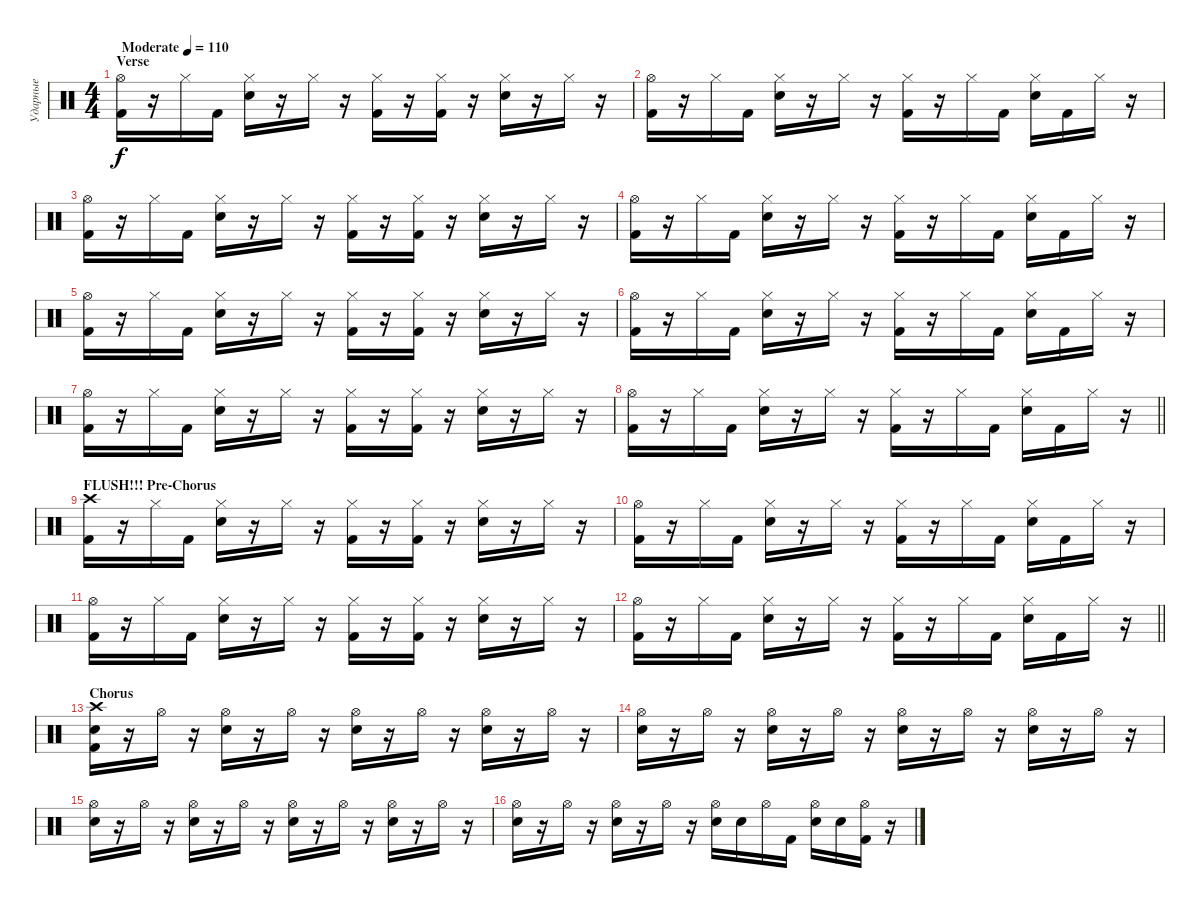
\track ("Ударные" "Ударные") {instrument percussion}
\staff {score}
\articulation defaults
\ts (4 4)
\section ("" "Verse")
\tempo (110 "Moderate")
\clef neutral
\ks c
("Hi-Hat (open)" "Kick (hit) 2").16{dy f} r.16 "Hi-Hat (closed)".16 "Kick (hit) 2".16 ("Hi-Hat (closed)" "Electric Snare (hit)").16 r.16 "Hi-Hat (closed)".16 r.16 ("Hi-Hat (closed)" "Kick (hit) 2").16 r.16 ("Hi-Hat (closed)" "Kick (hit) 2").16 r.16 ("Hi-Hat (closed)" "Electric Snare (hit)").16 r.16 "Hi-Hat (closed)".16 r.16 |
("Hi-Hat (open)" "Kick (hit) 2").16 r.16 "Hi-Hat (closed)".16 "Kick (hit) 2".16 ("Hi-Hat (closed)" "Electric Snare (hit)").16 r.16 "Hi-Hat (closed)".16 r.16 ("Hi-Hat (closed)" "Kick (hit) 2").16 r.16 "Hi-Hat (closed)".16 "Kick (hit) 2".16 ("Hi-Hat (closed)" "Electric Snare (hit)").16 "Kick (hit) 2".16 "Hi-Hat (closed)".16 r.16 |
("Hi-Hat (open)" "Kick (hit) 2").16 r.16 "Hi-Hat (closed)".16 "Kick (hit) 2".16 ("Hi-Hat (closed)" "Electric Snare (hit)").16 r.16 "Hi-Hat (closed)".16 r.16 ("Hi-Hat (closed)" "Kick (hit) 2").16 r.16 ("Hi-Hat (closed)" "Kick (hit) 2").16 r.16 ("Hi-Hat (closed)" "Electric Snare (hit)").16 r.16 "Hi-Hat (closed)".16 r.16 |
("Hi-Hat (open)" "Kick (hit) 2").16 r.16 "Hi-Hat (closed)".16 "Kick (hit) 2".16 ("Hi-Hat (closed)" "Electric Snare (hit)").16 r.16 "Hi-Hat (closed)".16 r.16 ("Hi-Hat (closed)" "Kick (hit) 2").16 r.16 "Hi-Hat (closed)".16 "Kick (hit) 2".16 ("Hi-Hat (closed)" "Electric Snare (hit)").16 "Kick (hit) 2".16 "Hi-Hat (closed)".16 r.16 |
("Hi-Hat (open)" "Kick (hit) 2").16 r.16 "Hi-Hat (closed)".16 "Kick (hit) 2".16 ("Hi-Hat (closed)" "Electric Snare (hit)").16 r.16 "Hi-Hat (closed)".16 r.16 ("Hi-Hat (closed)" "Kick (hit) 2").16 r.16 ("Hi-Hat (closed)" "Kick (hit) 2").16 r.16 ("Hi-Hat (closed)" "Electric Snare (hit)").16 r.16 "Hi-Hat (closed)".16 r.16 |
("Hi-Hat (open)" "Kick (hit) 2").16 r.16 "Hi-Hat (closed)".16 "Kick (hit) 2".16 ("Hi-Hat (closed)" "Electric Snare (hit)").16 r.16 "Hi-Hat (closed)".16 r.16 ("Hi-Hat (closed)" "Kick (hit) 2").16 r.16 "Hi-Hat (closed)".16 "Kick (hit) 2".16 ("Hi-Hat (closed)" "Electric Snare (hit)").16 "Kick (hit) 2".16 "Hi-Hat (closed)".16 r.16 |
("Hi-Hat (open)" "Kick (hit) 2").16 r.16 "Hi-Hat (closed)".16 "Kick (hit) 2".16 ("Hi-Hat (closed)" "Electric Snare (hit)").16 r.16 "Hi-Hat (closed)".16 r.16 ("Hi-Hat (closed)" "Kick (hit) 2").16 r.16 ("Hi-Hat (closed)" "Kick (hit) 2").16 r.16 ("Hi-Hat (closed)" "Electric Snare (hit)").16 r.16 "Hi-Hat (closed)".16 r.16 |
\barLineRight lightlight
("Hi-Hat (open)" "Kick (hit) 2").16 r.16 "Hi-Hat (closed)".16 "Kick (hit) 2".16 ("Hi-Hat (closed)" "Electric Snare (hit)").16 r.16 "Hi-Hat (closed)".16 r.16 ("Hi-Hat (closed)" "Kick (hit) 2").16 r.16 "Hi-Hat (closed)".16 "Kick (hit) 2".16 ("Hi-Hat (closed)" "Electric Snare (hit)").16 "Kick (hit) 2".16 "Hi-Hat (closed)".16 r.16 |
\section ("" "FLUSH!!! Pre-Chorus")
("Crash high (hit)" "Kick (hit) 2").16 r.16 "Hi-Hat (closed)".16 "Kick (hit) 2".16 ("Hi-Hat (closed)" "Electric Snare (hit)").16 r.16 "Hi-Hat (closed)".16 r.16 ("Hi-Hat (closed)" "Kick (hit) 2").16 r.16 ("Hi-Hat (closed)" "Kick (hit) 2").16 r.16 ("Hi-Hat (closed)" "Electric Snare (hit)").16 r.16 "Hi-Hat (closed)".16 r.16 |
("Hi-Hat (open)" "Kick (hit) 2").16 r.16 "Hi-Hat (closed)".16 "Kick (hit) 2".16 ("Hi-Hat (closed)" "Electric Snare (hit)").16 r.16 "Hi-Hat (closed)".16 r.16 ("Hi-Hat (closed)" "Kick (hit) 2").16 r.16 "Hi-Hat (closed)".16 "Kick (hit) 2".16 ("Hi-Hat (closed)" "Electric Snare (hit)").16 "Kick (hit) 2".16 "Hi-Hat (closed)".16 r.16 |
("Hi-Hat (open)" "Kick (hit) 2").16 r.16 "Hi-Hat (closed)".16 "Kick (hit) 2".16 ("Hi-Hat (closed)" "Electric Snare (hit)").16 r.16 "Hi-Hat (closed)".16 r.16 ("Hi-Hat (closed)" "Kick (hit) 2").16 r.16 ("Hi-Hat (closed)" "Kick (hit) 2").16 r.16 ("Hi-Hat (closed)" "Electric Snare (hit)").16 r.16 "Hi-Hat (closed)".16 r.16 |
\barLineRight lightlight
("Hi-Hat (open)" "Kick (hit) 2").16 r.16 "Hi-Hat (closed)".16 "Kick (hit) 2".16 ("Hi-Hat (closed)" "Electric Snare (hit)").16 r.16 "Hi-Hat (closed)".16 r.16 ("Hi-Hat (closed)" "Kick (hit) 2").16 r.16 "Hi-Hat (closed)".16 "Kick (hit) 2".16 ("Hi-Hat (closed)" "Electric Snare (hit)").16 "Kick (hit) 2".16 "Hi-Hat (closed)".16 r.16 |
\section ("" "Chorus")
("Crash high (hit)" "Electric Snare (hit)" "Kick (hit) 2").16 r.16 "Hi-Hat (open)".16 r.16 ("Hi-Hat (open)" "Electric Snare (hit)").16 r.16 "Hi-Hat (open)".16 r.16 ("Hi-Hat (open)" "Electric Snare (hit)").16 r.16 "Hi-Hat (open)".16 r.16 ("Hi-Hat (open)" "Electric Snare (hit)").16 r.16 "Hi-Hat (open)".16 r.16 |
("Hi-Hat (open)" "Electric Snare (hit)").16 r.16 "Hi-Hat (open)".16 r.16 ("Hi-Hat (open)" "Electric Snare (hit)").16 r.16 "Hi-Hat (open)".16 r.16 ("Hi-Hat (open)" "Electric Snare (hit)").16 r.16 "Hi-Hat (open)".16 r.16 ("Hi-Hat (open)" "Electric Snare (hit)").16 r.16 "Hi-Hat (open)".16 r.16 |
("Hi-Hat (open)" "Electric Snare (hit)").16 r.16 "Hi-Hat (open)".16 r.16 ("Hi-Hat (open)" "Electric Snare (hit)").16 r.16 "Hi-Hat (open)".16 r.16 ("Hi-Hat (open)" "Electric Snare (hit)").16 r.16 "Hi-Hat (open)".16 r.16 ("Hi-Hat (open)" "Electric Snare (hit)").16 r.16 "Hi-Hat (open)".16 r.16 |
("Hi-Hat (open)" "Electric Snare (hit)").16 r.16 "Hi-Hat (open)".16 r.16 ("Hi-Hat (open)" "Electric Snare (hit)").16 r.16 "Hi-Hat (open)".16 r.16 ("Hi-Hat (open)" "Electric Snare (hit)").16 "Electric Snare (hit)".16 "Hi-Hat (open)".16 "Kick (hit) 2".16 ("Hi-Hat (open)" "Electric Snare (hit)").16 "Electric Snare (hit)".16 ("Hi-Hat (open)" "Kick (hit) 2").16 r.16
